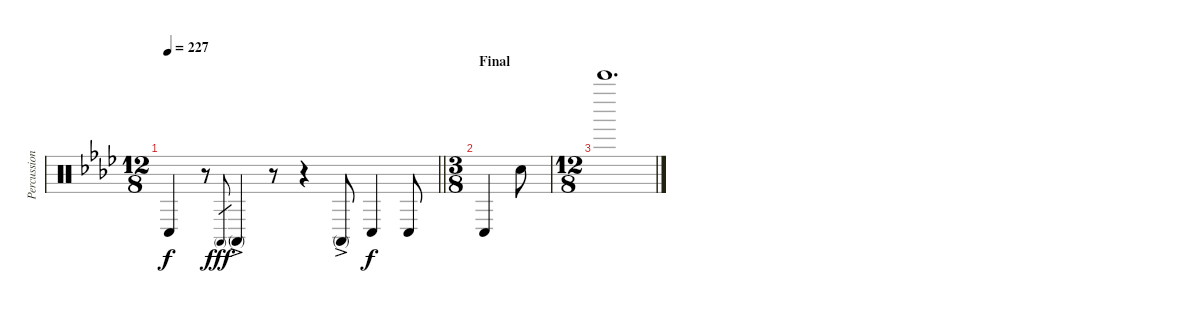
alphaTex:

\track ("Percussions" "Percussion") {instrument percussion}
\staff {score}
\articulation defaults
\ts (12 8)
\tempo 227
\clef neutral
\barLineRight lightlight
\ks fminor "Conga low (hit)".4{dy f}
r.8 "Conga high (mute)".8{gr dy fff} "Conga high (mute)"{ac}.4 r.8 r.4 "Conga high (mute)"{ac}.8 "Conga low (hit)".4{dy f} "Conga low (hit)".8 |
\ts (3 8)
\section ("" "Final")
"Conga low (hit)".4{volume 12 balance 8} "Metronome (bell)".8 |
\ts (12 8)
"Bell Tree (hit)".1{d}
